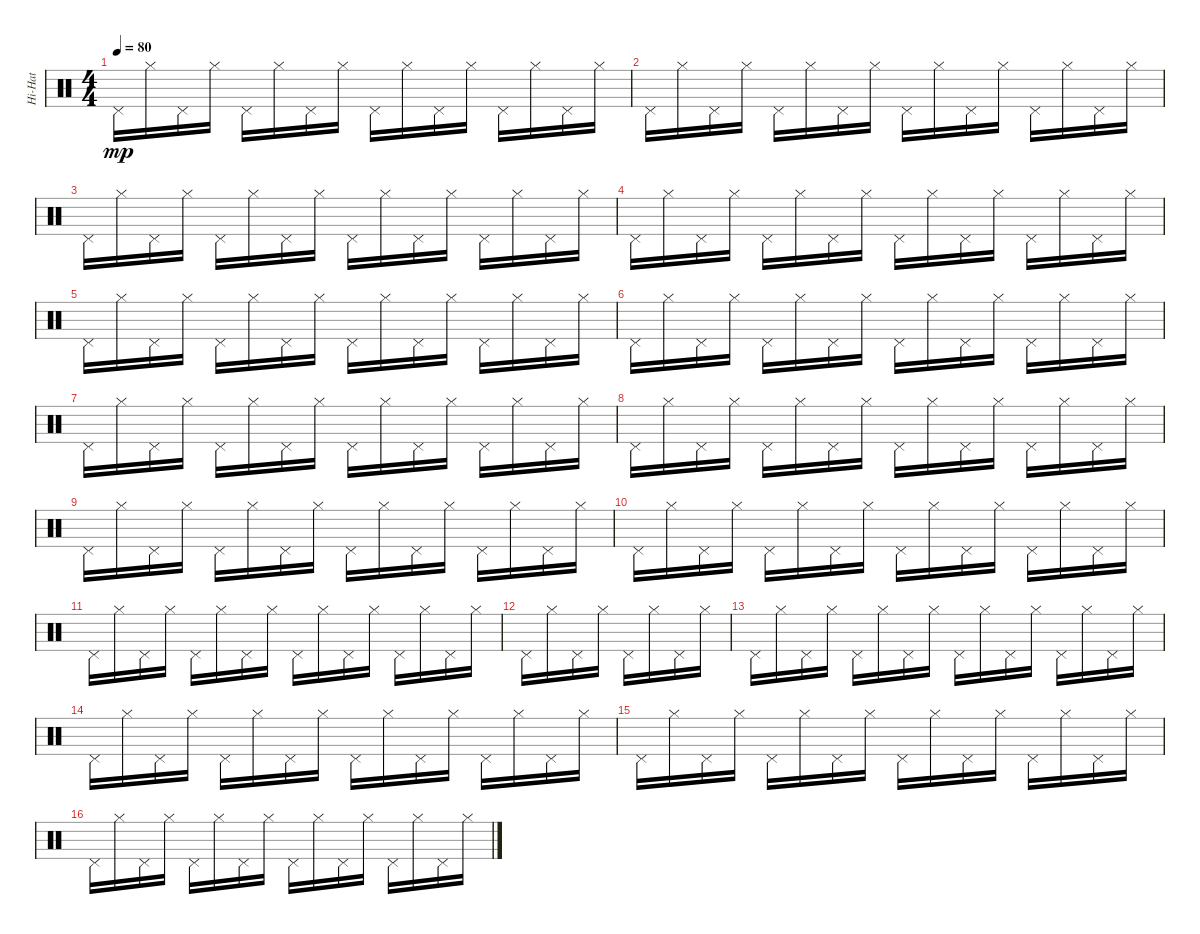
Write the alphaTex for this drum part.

\track ("Hi-Hat" "Hi-Hat") {instrument percussion}
\staff {score}
\articulation defaults
\ts (4 4)
\tempo 80
\clef neutral
\ks c "Pedal Hi-Hat (hit)".16{dy mp} "Hi-Hat (closed)".16 "Pedal Hi-Hat (hit)".16 "Hi-Hat (closed)".16 "Pedal Hi-Hat (hit)".16 "Hi-Hat (closed)".16 "Pedal Hi-Hat (hit)".16 "Hi-Hat (closed)".16 "Pedal Hi-Hat (hit)".16 "Hi-Hat (closed)".16 "Pedal Hi-Hat (hit)".16 "Hi-Hat (closed)".16 "Pedal Hi-Hat (hit)".16 "Hi-Hat (closed)".16 "Pedal Hi-Hat (hit)".16 "Hi-Hat (closed)".16
|
"Pedal Hi-Hat (hit)".16 "Hi-Hat (closed)".16 "Pedal Hi-Hat (hit)".16 "Hi-Hat (closed)".16 "Pedal Hi-Hat (hit)".16 "Hi-Hat (closed)".16 "Pedal Hi-Hat (hit)".16 "Hi-Hat (closed)".16 "Pedal Hi-Hat (hit)".16 "Hi-Hat (closed)".16 "Pedal Hi-Hat (hit)".16 "Hi-Hat (closed)".16 "Pedal Hi-Hat (hit)".16 "Hi-Hat (closed)".16 "Pedal Hi-Hat (hit)".16 "Hi-Hat (closed)".16 |
"Pedal Hi-Hat (hit)".16 "Hi-Hat (closed)".16 "Pedal Hi-Hat (hit)".16 "Hi-Hat (closed)".16 "Pedal Hi-Hat (hit)".16 "Hi-Hat (closed)".16 "Pedal Hi-Hat (hit)".16 "Hi-Hat (closed)".16 "Pedal Hi-Hat (hit)".16 "Hi-Hat (closed)".16 "Pedal Hi-Hat (hit)".16 "Hi-Hat (closed)".16 "Pedal Hi-Hat (hit)".16 "Hi-Hat (closed)".16 "Pedal Hi-Hat (hit)".16 "Hi-Hat (closed)".16 |
"Pedal Hi-Hat (hit)".16 "Hi-Hat (closed)".16 "Pedal Hi-Hat (hit)".16 "Hi-Hat (closed)".16 "Pedal Hi-Hat (hit)".16 "Hi-Hat (closed)".16 "Pedal Hi-Hat (hit)".16 "Hi-Hat (closed)".16 "Pedal Hi-Hat (hit)".16 "Hi-Hat (closed)".16 "Pedal Hi-Hat (hit)".16 "Hi-Hat (closed)".16 "Pedal Hi-Hat (hit)".16 "Hi-Hat (closed)".16 "Pedal Hi-Hat (hit)".16 "Hi-Hat (closed)".16 |
"Pedal Hi-Hat (hit)".16 "Hi-Hat (closed)".16 "Pedal Hi-Hat (hit)".16 "Hi-Hat (closed)".16 "Pedal Hi-Hat (hit)".16 "Hi-Hat (closed)".16 "Pedal Hi-Hat (hit)".16 "Hi-Hat (closed)".16 "Pedal Hi-Hat (hit)".16 "Hi-Hat (closed)".16 "Pedal Hi-Hat (hit)".16 "Hi-Hat (closed)".16 "Pedal Hi-Hat (hit)".16 "Hi-Hat (closed)".16 "Pedal Hi-Hat (hit)".16 "Hi-Hat (closed)".16 |
"Pedal Hi-Hat (hit)".16 "Hi-Hat (closed)".16 "Pedal Hi-Hat (hit)".16 "Hi-Hat (closed)".16 "Pedal Hi-Hat (hit)".16 "Hi-Hat (closed)".16 "Pedal Hi-Hat (hit)".16 "Hi-Hat (closed)".16 "Pedal Hi-Hat (hit)".16 "Hi-Hat (closed)".16 "Pedal Hi-Hat (hit)".16 "Hi-Hat (closed)".16 "Pedal Hi-Hat (hit)".16 "Hi-Hat (closed)".16 "Pedal Hi-Hat (hit)".16 "Hi-Hat (closed)".16 |
"Pedal Hi-Hat (hit)".16 "Hi-Hat (closed)".16 "Pedal Hi-Hat (hit)".16 "Hi-Hat (closed)".16 "Pedal Hi-Hat (hit)".16 "Hi-Hat (closed)".16 "Pedal Hi-Hat (hit)".16 "Hi-Hat (closed)".16 "Pedal Hi-Hat (hit)".16 "Hi-Hat (closed)".16 "Pedal Hi-Hat (hit)".16 "Hi-Hat (closed)".16 "Pedal Hi-Hat (hit)".16 "Hi-Hat (closed)".16 "Pedal Hi-Hat (hit)".16 "Hi-Hat (closed)".16 |
"Pedal Hi-Hat (hit)".16 "Hi-Hat (closed)".16 "Pedal Hi-Hat (hit)".16 "Hi-Hat (closed)".16 "Pedal Hi-Hat (hit)".16 "Hi-Hat (closed)".16 "Pedal Hi-Hat (hit)".16 "Hi-Hat (closed)".16 "Pedal Hi-Hat (hit)".16 "Hi-Hat (closed)".16 "Pedal Hi-Hat (hit)".16 "Hi-Hat (closed)".16 "Pedal Hi-Hat (hit)".16 "Hi-Hat (closed)".16 "Pedal Hi-Hat (hit)".16 "Hi-Hat (closed)".16 |
"Pedal Hi-Hat (hit)".16 "Hi-Hat (closed)".16 "Pedal Hi-Hat (hit)".16 "Hi-Hat (closed)".16 "Pedal Hi-Hat (hit)".16 "Hi-Hat (closed)".16 "Pedal Hi-Hat (hit)".16 "Hi-Hat (closed)".16 "Pedal Hi-Hat (hit)".16 "Hi-Hat (closed)".16 "Pedal Hi-Hat (hit)".16 "Hi-Hat (closed)".16 "Pedal Hi-Hat (hit)".16 "Hi-Hat (closed)".16 "Pedal Hi-Hat (hit)".16 "Hi-Hat (closed)".16 |
"Pedal Hi-Hat (hit)".16 "Hi-Hat (closed)".16 "Pedal Hi-Hat (hit)".16 "Hi-Hat (closed)".16 "Pedal Hi-Hat (hit)".16 "Hi-Hat (closed)".16 "Pedal Hi-Hat (hit)".16 "Hi-Hat (closed)".16 "Pedal Hi-Hat (hit)".16 "Hi-Hat (closed)".16 "Pedal Hi-Hat (hit)".16 "Hi-Hat (closed)".16 "Pedal Hi-Hat (hit)".16 "Hi-Hat (closed)".16 "Pedal Hi-Hat (hit)".16 "Hi-Hat (closed)".16 |
"Pedal Hi-Hat (hit)".16 "Hi-Hat (closed)".16 "Pedal Hi-Hat (hit)".16 "Hi-Hat (closed)".16 "Pedal Hi-Hat (hit)".16 "Hi-Hat (closed)".16 "Pedal Hi-Hat (hit)".16 "Hi-Hat (closed)".16 "Pedal Hi-Hat (hit)".16 "Hi-Hat (closed)".16 "Pedal Hi-Hat (hit)".16 "Hi-Hat (closed)".16 "Pedal Hi-Hat (hit)".16 "Hi-Hat (closed)".16 "Pedal Hi-Hat (hit)".16 "Hi-Hat (closed)".16 |
"Pedal Hi-Hat (hit)".16 "Hi-Hat (closed)".16 "Pedal Hi-Hat (hit)".16 "Hi-Hat (closed)".16 "Pedal Hi-Hat (hit)".16 "Hi-Hat (closed)".16 "Pedal Hi-Hat (hit)".16 "Hi-Hat (closed)".16 |
"Pedal Hi-Hat (hit)".16 "Hi-Hat (closed)".16 "Pedal Hi-Hat (hit)".16 "Hi-Hat (closed)".16 "Pedal Hi-Hat (hit)".16 "Hi-Hat (closed)".16 "Pedal Hi-Hat (hit)".16 "Hi-Hat (closed)".16 "Pedal Hi-Hat (hit)".16 "Hi-Hat (closed)".16 "Pedal Hi-Hat (hit)".16 "Hi-Hat (closed)".16 "Pedal Hi-Hat (hit)".16 "Hi-Hat (closed)".16 "Pedal Hi-Hat (hit)".16 "Hi-Hat (closed)".16 |
"Pedal Hi-Hat (hit)".16 "Hi-Hat (closed)".16 "Pedal Hi-Hat (hit)".16 "Hi-Hat (closed)".16 "Pedal Hi-Hat (hit)".16 "Hi-Hat (closed)".16 "Pedal Hi-Hat (hit)".16 "Hi-Hat (closed)".16 "Pedal Hi-Hat (hit)".16 "Hi-Hat (closed)".16 "Pedal Hi-Hat (hit)".16 "Hi-Hat (closed)".16 "Pedal Hi-Hat (hit)".16 "Hi-Hat (closed)".16 "Pedal Hi-Hat (hit)".16 "Hi-Hat (closed)".16 |
"Pedal Hi-Hat (hit)".16 "Hi-Hat (closed)".16 "Pedal Hi-Hat (hit)".16 "Hi-Hat (closed)".16 "Pedal Hi-Hat (hit)".16 "Hi-Hat (closed)".16 "Pedal Hi-Hat (hit)".16 "Hi-Hat (closed)".16 "Pedal Hi-Hat (hit)".16 "Hi-Hat (closed)".16 "Pedal Hi-Hat (hit)".16 "Hi-Hat (closed)".16 "Pedal Hi-Hat (hit)".16 "Hi-Hat (closed)".16 "Pedal Hi-Hat (hit)".16 "Hi-Hat (closed)".16 |
"Pedal Hi-Hat (hit)".16 "Hi-Hat (closed)".16 "Pedal Hi-Hat (hit)".16 "Hi-Hat (closed)".16 "Pedal Hi-Hat (hit)".16 "Hi-Hat (closed)".16 "Pedal Hi-Hat (hit)".16 "Hi-Hat (closed)".16 "Pedal Hi-Hat (hit)".16 "Hi-Hat (closed)".16 "Pedal Hi-Hat (hit)".16 "Hi-Hat (closed)".16 "Pedal Hi-Hat (hit)".16 "Hi-Hat (closed)".16 "Pedal Hi-Hat (hit)".16 "Hi-Hat (closed)".16
